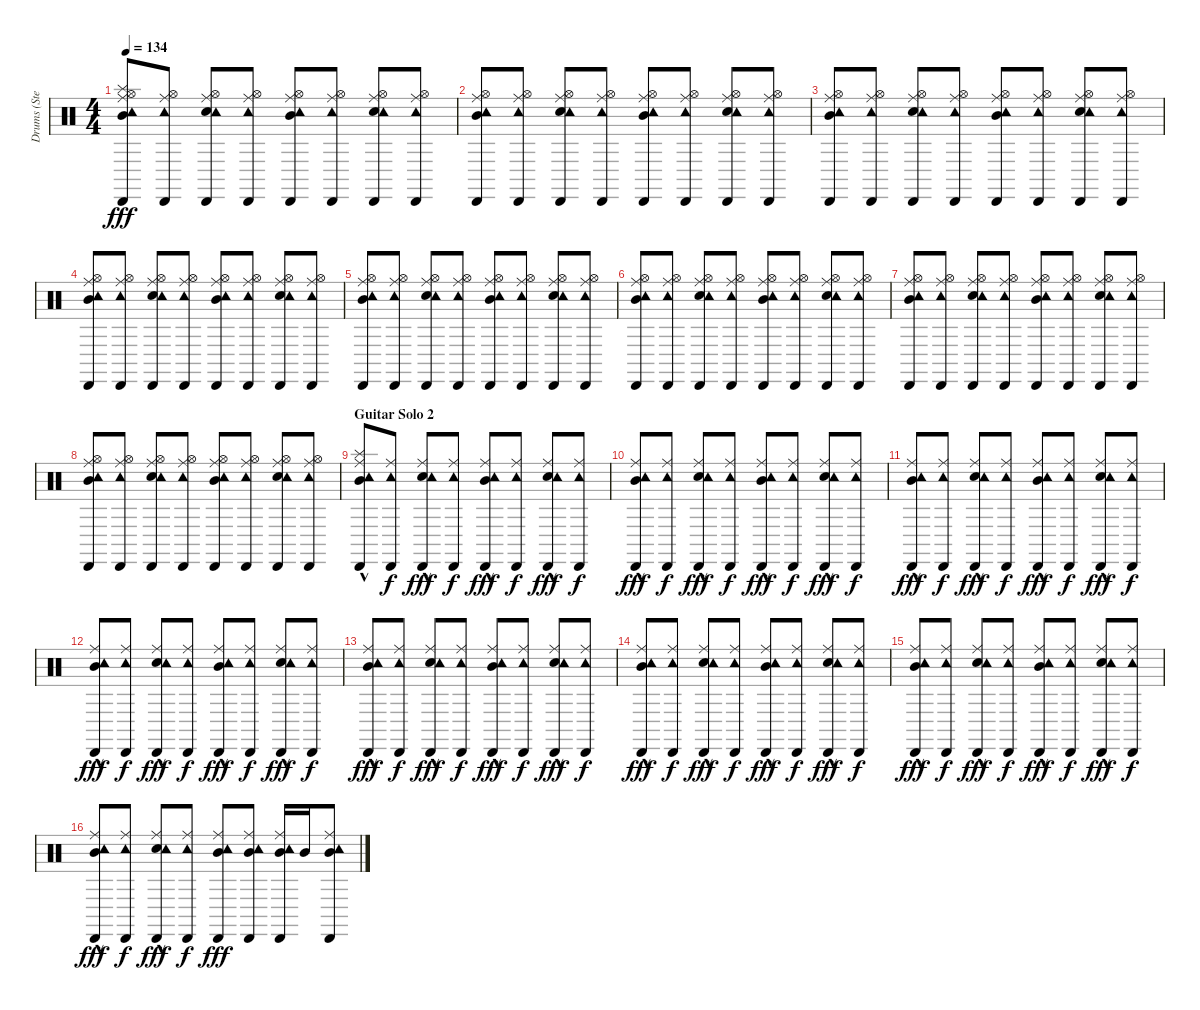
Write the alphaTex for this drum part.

\track ("Drums (Steven)" "Drums (Ste") {instrument percussion}
\staff {score}
\articulation defaults
\ts (4 4)
\tempo 134
\clef neutral
\ks c
("Hi-Hat (open)" "Mid Tom (hit)" "Splash (hit)" "Ride (middle)" "Tambourine (hit)" "Cabasa (hit)").8{dy fff} ("Hi-Hat (open)" "Ride (middle)" "Tambourine (hit)" "Cabasa (hit)").8 ("Electric Snare (hit)" "Hi-Hat (open)" "Ride (middle)" "Tambourine (hit)" "Cabasa (hit)").8 ("Hi-Hat (open)" "Ride (middle)" "Tambourine (hit)" "Cabasa (hit)").8 ("Hi-Hat (open)" "Mid Tom (hit)" "Ride (middle)" "Tambourine (hit)" "Cabasa (hit)").8 ("Hi-Hat (open)" "Ride (middle)" "Tambourine (hit)" "Cabasa (hit)").8 ("Electric Snare (hit)" "Hi-Hat (open)" "Ride (middle)" "Tambourine (hit)" "Cabasa (hit)").8 ("Hi-Hat (open)" "Ride (middle)" "Tambourine (hit)" "Cabasa (hit)").8 |
("Hi-Hat (open)" "Mid Tom (hit)" "Ride (middle)" "Tambourine (hit)" "Cabasa (hit)").8 ("Hi-Hat (open)" "Ride (middle)" "Tambourine (hit)" "Cabasa (hit)").8 ("Electric Snare (hit)" "Hi-Hat (open)" "Ride (middle)" "Tambourine (hit)" "Cabasa (hit)").8 ("Hi-Hat (open)" "Ride (middle)" "Tambourine (hit)" "Cabasa (hit)").8 ("Hi-Hat (open)" "Mid Tom (hit)" "Ride (middle)" "Tambourine (hit)" "Cabasa (hit)").8 ("Hi-Hat (open)" "Ride (middle)" "Tambourine (hit)" "Cabasa (hit)").8 ("Electric Snare (hit)" "Hi-Hat (open)" "Ride (middle)" "Tambourine (hit)" "Cabasa (hit)").8 ("Hi-Hat (open)" "Ride (middle)" "Tambourine (hit)" "Cabasa (hit)").8 |
("Hi-Hat (open)" "Mid Tom (hit)" "Ride (middle)" "Tambourine (hit)" "Cabasa (hit)").8 ("Hi-Hat (open)" "Ride (middle)" "Tambourine (hit)" "Cabasa (hit)").8 ("Electric Snare (hit)" "Hi-Hat (open)" "Ride (middle)" "Tambourine (hit)" "Cabasa (hit)").8 ("Hi-Hat (open)" "Ride (middle)" "Tambourine (hit)" "Cabasa (hit)").8 ("Hi-Hat (open)" "Mid Tom (hit)" "Ride (middle)" "Tambourine (hit)" "Cabasa (hit)").8 ("Hi-Hat (open)" "Ride (middle)" "Tambourine (hit)" "Cabasa (hit)").8 ("Electric Snare (hit)" "Hi-Hat (open)" "Ride (middle)" "Tambourine (hit)" "Cabasa (hit)").8 ("Hi-Hat (open)" "Ride (middle)" "Tambourine (hit)" "Cabasa (hit)").8 |
("Hi-Hat (open)" "Mid Tom (hit)" "Ride (middle)" "Tambourine (hit)" "Cabasa (hit)").8 ("Hi-Hat (open)" "Ride (middle)" "Tambourine (hit)" "Cabasa (hit)").8 ("Electric Snare (hit)" "Hi-Hat (open)" "Ride (middle)" "Tambourine (hit)" "Cabasa (hit)").8 ("Hi-Hat (open)" "Ride (middle)" "Tambourine (hit)" "Cabasa (hit)").8 ("Hi-Hat (open)" "Mid Tom (hit)" "Ride (middle)" "Tambourine (hit)" "Cabasa (hit)").8 ("Hi-Hat (open)" "Ride (middle)" "Tambourine (hit)" "Cabasa (hit)").8 ("Electric Snare (hit)" "Hi-Hat (open)" "Ride (middle)" "Tambourine (hit)" "Cabasa (hit)").8 ("Hi-Hat (open)" "Ride (middle)" "Tambourine (hit)" "Cabasa (hit)").8 |
("Hi-Hat (open)" "Mid Tom (hit)" "Ride (middle)" "Tambourine (hit)" "Cabasa (hit)").8 ("Hi-Hat (open)" "Ride (middle)" "Tambourine (hit)" "Cabasa (hit)").8 ("Electric Snare (hit)" "Hi-Hat (open)" "Ride (middle)" "Tambourine (hit)" "Cabasa (hit)").8 ("Hi-Hat (open)" "Ride (middle)" "Tambourine (hit)" "Cabasa (hit)").8 ("Hi-Hat (open)" "Mid Tom (hit)" "Ride (middle)" "Tambourine (hit)" "Cabasa (hit)").8 ("Hi-Hat (open)" "Ride (middle)" "Tambourine (hit)" "Cabasa (hit)").8 ("Electric Snare (hit)" "Hi-Hat (open)" "Ride (middle)" "Tambourine (hit)" "Cabasa (hit)").8 ("Hi-Hat (open)" "Ride (middle)" "Tambourine (hit)" "Cabasa (hit)").8 |
("Hi-Hat (open)" "Mid Tom (hit)" "Ride (middle)" "Tambourine (hit)" "Cabasa (hit)").8 ("Hi-Hat (open)" "Ride (middle)" "Tambourine (hit)" "Cabasa (hit)").8 ("Electric Snare (hit)" "Hi-Hat (open)" "Ride (middle)" "Tambourine (hit)" "Cabasa (hit)").8 ("Hi-Hat (open)" "Ride (middle)" "Tambourine (hit)" "Cabasa (hit)").8 ("Hi-Hat (open)" "Mid Tom (hit)" "Ride (middle)" "Tambourine (hit)" "Cabasa (hit)").8 ("Hi-Hat (open)" "Ride (middle)" "Tambourine (hit)" "Cabasa (hit)").8 ("Electric Snare (hit)" "Hi-Hat (open)" "Ride (middle)" "Tambourine (hit)" "Cabasa (hit)").8 ("Hi-Hat (open)" "Ride (middle)" "Tambourine (hit)" "Cabasa (hit)").8 |
("Hi-Hat (open)" "Mid Tom (hit)" "Ride (middle)" "Tambourine (hit)" "Cabasa (hit)").8 ("Hi-Hat (open)" "Ride (middle)" "Tambourine (hit)" "Cabasa (hit)").8 ("Electric Snare (hit)" "Hi-Hat (open)" "Ride (middle)" "Tambourine (hit)" "Cabasa (hit)").8 ("Hi-Hat (open)" "Ride (middle)" "Tambourine (hit)" "Cabasa (hit)").8 ("Hi-Hat (open)" "Mid Tom (hit)" "Ride (middle)" "Tambourine (hit)" "Cabasa (hit)").8 ("Hi-Hat (open)" "Ride (middle)" "Tambourine (hit)" "Cabasa (hit)").8 ("Electric Snare (hit)" "Hi-Hat (open)" "Ride (middle)" "Tambourine (hit)" "Cabasa (hit)").8 ("Hi-Hat (open)" "Ride (middle)" "Tambourine (hit)" "Cabasa (hit)").8 |
("Hi-Hat (open)" "Mid Tom (hit)" "Ride (middle)" "Tambourine (hit)" "Cabasa (hit)").8 ("Hi-Hat (open)" "Ride (middle)" "Tambourine (hit)" "Cabasa (hit)").8 ("Electric Snare (hit)" "Hi-Hat (open)" "Ride (middle)" "Tambourine (hit)" "Cabasa (hit)").8 ("Hi-Hat (open)" "Ride (middle)" "Tambourine (hit)" "Cabasa (hit)").8 ("Hi-Hat (open)" "Mid Tom (hit)" "Ride (middle)" "Tambourine (hit)" "Cabasa (hit)").8 ("Hi-Hat (open)" "Ride (middle)" "Tambourine (hit)" "Cabasa (hit)").8 ("Electric Snare (hit)" "Hi-Hat (open)" "Ride (middle)" "Tambourine (hit)" "Cabasa (hit)").8 ("Hi-Hat (open)" "Ride (middle)" "Tambourine (hit)" "Cabasa (hit)").8 |
\section ("" "Guitar Solo 2")
("Mid Tom (hit)"{hac} "Splash (hit)"{hac} "Ride (middle)" "Tambourine (hit)" "Cabasa (hit)").8 ("Ride (middle)" "Tambourine (hit)" "Cabasa (hit)").8{dy f} ("Electric Snare (hit)"{hac} "Ride (middle)" "Tambourine (hit)" "Cabasa (hit)").8{dy fff} ("Ride (middle)" "Tambourine (hit)" "Cabasa (hit)").8{dy f} ("Mid Tom (hit)"{hac} "Ride (middle)" "Tambourine (hit)" "Cabasa (hit)").8{dy fff} ("Ride (middle)" "Tambourine (hit)" "Cabasa (hit)").8{dy f} ("Electric Snare (hit)"{hac} "Ride (middle)" "Tambourine (hit)" "Cabasa (hit)").8{dy fff} ("Ride (middle)" "Tambourine (hit)" "Cabasa (hit)").8{dy f} |
("Mid Tom (hit)"{hac} "Ride (middle)" "Tambourine (hit)" "Cabasa (hit)").8{dy fff} ("Ride (middle)" "Tambourine (hit)" "Cabasa (hit)").8{dy f} ("Electric Snare (hit)"{hac} "Ride (middle)" "Tambourine (hit)" "Cabasa (hit)").8{dy fff} ("Ride (middle)" "Tambourine (hit)" "Cabasa (hit)").8{dy f} ("Mid Tom (hit)"{hac} "Ride (middle)" "Tambourine (hit)" "Cabasa (hit)").8{dy fff} ("Ride (middle)" "Tambourine (hit)" "Cabasa (hit)").8{dy f} ("Electric Snare (hit)"{hac} "Ride (middle)" "Tambourine (hit)" "Cabasa (hit)").8{dy fff} ("Ride (middle)" "Tambourine (hit)" "Cabasa (hit)").8{dy f} |
("Mid Tom (hit)"{hac} "Ride (middle)" "Tambourine (hit)" "Cabasa (hit)").8{dy fff} ("Ride (middle)" "Tambourine (hit)" "Cabasa (hit)").8{dy f} ("Electric Snare (hit)"{hac} "Ride (middle)" "Tambourine (hit)" "Cabasa (hit)").8{dy fff} ("Ride (middle)" "Tambourine (hit)" "Cabasa (hit)").8{dy f} ("Mid Tom (hit)"{hac} "Ride (middle)" "Tambourine (hit)" "Cabasa (hit)").8{dy fff} ("Ride (middle)" "Tambourine (hit)" "Cabasa (hit)").8{dy f} ("Electric Snare (hit)"{hac} "Ride (middle)" "Tambourine (hit)" "Cabasa (hit)").8{dy fff} ("Ride (middle)" "Tambourine (hit)" "Cabasa (hit)").8{dy f} |
("Mid Tom (hit)"{hac} "Ride (middle)" "Tambourine (hit)" "Cabasa (hit)").8{dy fff} ("Ride (middle)" "Tambourine (hit)" "Cabasa (hit)").8{dy f} ("Electric Snare (hit)"{hac} "Ride (middle)" "Tambourine (hit)" "Cabasa (hit)").8{dy fff} ("Ride (middle)" "Tambourine (hit)" "Cabasa (hit)").8{dy f} ("Mid Tom (hit)"{hac} "Ride (middle)" "Tambourine (hit)" "Cabasa (hit)").8{dy fff} ("Ride (middle)" "Tambourine (hit)" "Cabasa (hit)").8{dy f} ("Electric Snare (hit)"{hac} "Ride (middle)" "Tambourine (hit)" "Cabasa (hit)").8{dy fff} ("Ride (middle)" "Tambourine (hit)" "Cabasa (hit)").8{dy f} |
("Mid Tom (hit)"{hac} "Ride (middle)" "Tambourine (hit)" "Cabasa (hit)").8{dy fff} ("Ride (middle)" "Tambourine (hit)" "Cabasa (hit)").8{dy f} ("Electric Snare (hit)"{hac} "Ride (middle)" "Tambourine (hit)" "Cabasa (hit)").8{dy fff} ("Ride (middle)" "Tambourine (hit)" "Cabasa (hit)").8{dy f} ("Mid Tom (hit)"{hac} "Ride (middle)" "Tambourine (hit)" "Cabasa (hit)").8{dy fff} ("Ride (middle)" "Tambourine (hit)" "Cabasa (hit)").8{dy f} ("Electric Snare (hit)"{hac} "Ride (middle)" "Tambourine (hit)" "Cabasa (hit)").8{dy fff} ("Ride (middle)" "Tambourine (hit)" "Cabasa (hit)").8{dy f} |
("Mid Tom (hit)"{hac} "Ride (middle)" "Tambourine (hit)" "Cabasa (hit)").8{dy fff} ("Ride (middle)" "Tambourine (hit)" "Cabasa (hit)").8{dy f} ("Electric Snare (hit)"{hac} "Ride (middle)" "Tambourine (hit)" "Cabasa (hit)").8{dy fff} ("Ride (middle)" "Tambourine (hit)" "Cabasa (hit)").8{dy f} ("Mid Tom (hit)"{hac} "Ride (middle)" "Tambourine (hit)" "Cabasa (hit)").8{dy fff} ("Ride (middle)" "Tambourine (hit)" "Cabasa (hit)").8{dy f} ("Electric Snare (hit)"{hac} "Ride (middle)" "Tambourine (hit)" "Cabasa (hit)").8{dy fff} ("Ride (middle)" "Tambourine (hit)" "Cabasa (hit)").8{dy f} |
("Mid Tom (hit)"{hac} "Ride (middle)" "Tambourine (hit)" "Cabasa (hit)").8{dy fff} ("Ride (middle)" "Tambourine (hit)" "Cabasa (hit)").8{dy f} ("Electric Snare (hit)"{hac} "Ride (middle)" "Tambourine (hit)" "Cabasa (hit)").8{dy fff} ("Ride (middle)" "Tambourine (hit)" "Cabasa (hit)").8{dy f} ("Mid Tom (hit)"{hac} "Ride (middle)" "Tambourine (hit)" "Cabasa (hit)").8{dy fff} ("Ride (middle)" "Tambourine (hit)" "Cabasa (hit)").8{dy f} ("Electric Snare (hit)"{hac} "Ride (middle)" "Tambourine (hit)" "Cabasa (hit)").8{dy fff} ("Ride (middle)" "Tambourine (hit)" "Cabasa (hit)").8{dy f} |
("Mid Tom (hit)"{hac} "Ride (middle)" "Tambourine (hit)" "Cabasa (hit)").8{dy fff} ("Ride (middle)" "Tambourine (hit)" "Cabasa (hit)").8{dy f} ("Electric Snare (hit)"{hac} "Ride (middle)" "Tambourine (hit)" "Cabasa (hit)").8{dy fff} ("Ride (middle)" "Tambourine (hit)" "Cabasa (hit)").8{dy f} ("Mid Tom (hit)" "Ride (middle)" "Tambourine (hit)" "Cabasa (hit)").8{dy fff} ("Mid Tom (hit)" "Ride (middle)" "Tambourine (hit)" "Cabasa (hit)").8 ("Mid Tom (hit)" "Ride (middle)" "Tambourine (hit)" "Cabasa (hit)").16 "Mid Tom (hit)".16 ("Mid Tom (hit)" "Ride (middle)" "Tambourine (hit)" "Cabasa (hit)").8
